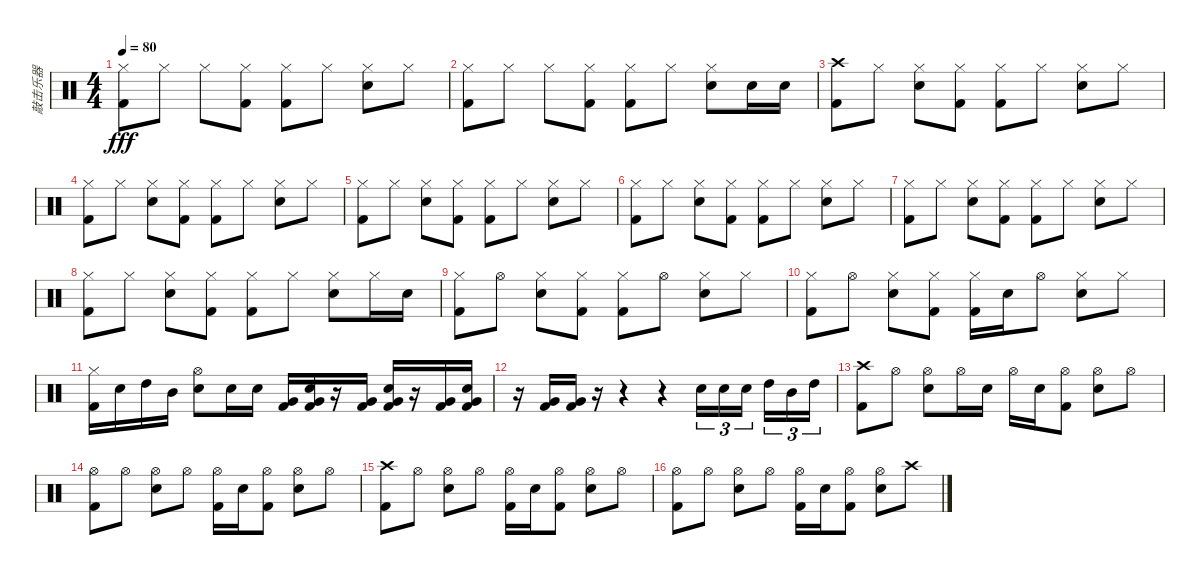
\track ("敲击乐器" "敲击乐器") {instrument percussion}
\staff {score}
\articulation defaults
\ts (4 4)
\tempo 80
\clef neutral
\ks c
("Hi-Hat (closed)" "Kick (hit) 2").8{dy fff} "Hi-Hat (closed)".8 "Hi-Hat (closed)".8 ("Hi-Hat (closed)" "Kick (hit) 2").8 ("Hi-Hat (closed)" "Kick (hit) 2").8 "Hi-Hat (closed)".8 ("Hi-Hat (closed)" "Electric Snare (hit)").8 "Hi-Hat (closed)".8 |
("Hi-Hat (closed)" "Kick (hit) 2").8 "Hi-Hat (closed)".8 "Hi-Hat (closed)".8 ("Hi-Hat (closed)" "Kick (hit) 2").8 ("Hi-Hat (closed)" "Kick (hit) 2").8 "Hi-Hat (closed)".8 ("Hi-Hat (closed)" "Electric Snare (hit)").8 "Electric Snare (hit)".16 "Electric Snare (hit)".16 |
("Crash high (hit)" "Kick (hit) 2").8 "Hi-Hat (closed)".8 ("Hi-Hat (closed)" "Electric Snare (hit)").8 ("Hi-Hat (closed)" "Kick (hit) 2").8 ("Hi-Hat (closed)" "Kick (hit) 2").8 "Hi-Hat (closed)".8 ("Hi-Hat (closed)" "Electric Snare (hit)").8 "Hi-Hat (closed)".8 |
("Hi-Hat (closed)" "Kick (hit) 2").8 "Hi-Hat (closed)".8 ("Hi-Hat (closed)" "Electric Snare (hit)").8 ("Hi-Hat (closed)" "Kick (hit) 2").8 ("Hi-Hat (closed)" "Kick (hit) 2").8 "Hi-Hat (closed)".8 ("Hi-Hat (closed)" "Electric Snare (hit)").8 "Hi-Hat (closed)".8 |
("Hi-Hat (closed)" "Kick (hit) 2").8 "Hi-Hat (closed)".8 ("Hi-Hat (closed)" "Electric Snare (hit)").8 ("Hi-Hat (closed)" "Kick (hit) 2").8 ("Hi-Hat (closed)" "Kick (hit) 2").8 "Hi-Hat (closed)".8 ("Hi-Hat (closed)" "Electric Snare (hit)").8 "Hi-Hat (closed)".8 |
("Hi-Hat (closed)" "Kick (hit) 2").8 "Hi-Hat (closed)".8 ("Hi-Hat (closed)" "Electric Snare (hit)").8 ("Hi-Hat (closed)" "Kick (hit) 2").8 ("Hi-Hat (closed)" "Kick (hit) 2").8 "Hi-Hat (closed)".8 ("Hi-Hat (closed)" "Electric Snare (hit)").8 "Hi-Hat (closed)".8 |
("Hi-Hat (closed)" "Kick (hit) 2").8 "Hi-Hat (closed)".8 ("Hi-Hat (closed)" "Electric Snare (hit)").8 ("Hi-Hat (closed)" "Kick (hit) 2").8 ("Hi-Hat (closed)" "Kick (hit) 2").8 "Hi-Hat (closed)".8 ("Hi-Hat (closed)" "Electric Snare (hit)").8 "Hi-Hat (closed)".8 |
("Hi-Hat (closed)" "Kick (hit) 2").8 "Hi-Hat (closed)".8 ("Hi-Hat (closed)" "Electric Snare (hit)").8 ("Hi-Hat (closed)" "Kick (hit) 2").8 ("Hi-Hat (closed)" "Kick (hit) 2").8 "Hi-Hat (closed)".8 ("Hi-Hat (closed)" "Electric Snare (hit)").8 "Hi-Hat (closed)".16 "Electric Snare (hit)".16 |
("Hi-Hat (closed)" "Kick (hit) 2").8 "Hi-Hat (open)".8 ("Hi-Hat (closed)" "Electric Snare (hit)").8 ("Hi-Hat (closed)" "Kick (hit) 2").8 ("Hi-Hat (closed)" "Kick (hit) 2").8 "Hi-Hat (open)".8 ("Hi-Hat (closed)" "Electric Snare (hit)").8 "Hi-Hat (closed)".8 |
("Hi-Hat (closed)" "Kick (hit) 2").8 "Hi-Hat (open)".8 ("Hi-Hat (closed)" "Electric Snare (hit)").8 ("Hi-Hat (closed)" "Kick (hit) 2").8 ("Hi-Hat (closed)" "Kick (hit) 2").16 "Electric Snare (hit)".16 "Hi-Hat (open)".8 ("Hi-Hat (closed)" "Electric Snare (hit)").8 "Hi-Hat (closed)".8 |
("Hi-Hat (closed)" "Kick (hit) 2").16 "Electric Snare (hit)".16 "High Tom (hit)".16 "Mid Tom (hit)".16 ("Hi-Hat (open)" "Electric Snare (hit)").8 "Electric Snare (hit)".16 "Electric Snare (hit)".16 ("Very Low Tom (hit)" "Kick (hit) 2").16 ("Electric Snare (hit)" "Very Low Tom (hit)" "Kick (hit) 2").16 r.16 ("Very Low Tom (hit)" "Kick (hit) 2").16 ("Electric Snare (hit)" "Very Low Tom (hit)" "Kick (hit) 2").16 r.16 ("Very Low Tom (hit)" "Kick (hit) 2").16 ("Electric Snare (hit)" "Very Low Tom (hit)" "Kick (hit) 2").16 |
r.16 ("Very Low Tom (hit)" "Kick (hit) 2").16 ("Very Low Tom (hit)" "Kick (hit) 2").16 r.16 r.4 r.4 "Electric Snare (hit)".16{tu (3 2)} "Electric Snare (hit)".16{tu (3 2)} "Electric Snare (hit)".16{tu (3 2) beam splitsecondary} "High Tom (hit)".16{tu (3 2)} "Mid Tom (hit)".16{tu (3 2)} "High Tom (hit)".16{tu (3 2)} |
("Crash high (hit)" "Kick (hit) 2").8 "Hi-Hat (open)".8 ("Hi-Hat (open)" "Electric Snare (hit)").8 "Hi-Hat (open)".16 "Electric Snare (hit)".16 "Hi-Hat (open)".16 "Electric Snare (hit)".16 ("Hi-Hat (open)" "Kick (hit) 2").8 ("Hi-Hat (open)" "Electric Snare (hit)").8 "Hi-Hat (open)".8 |
("Hi-Hat (open)" "Kick (hit) 2").8 "Hi-Hat (open)".8 ("Hi-Hat (open)" "Electric Snare (hit)").8 "Hi-Hat (open)".8 ("Hi-Hat (open)" "Kick (hit) 2").16 "Electric Snare (hit)".16 ("Hi-Hat (open)" "Kick (hit) 2").8 ("Hi-Hat (open)" "Electric Snare (hit)").8 "Hi-Hat (open)".8 |
("Crash high (hit)" "Kick (hit) 2").8 "Hi-Hat (open)".8 ("Hi-Hat (open)" "Electric Snare (hit)").8 "Hi-Hat (open)".8 ("Hi-Hat (open)" "Kick (hit) 2").16 "Electric Snare (hit)".16 ("Hi-Hat (open)" "Kick (hit) 2").8 ("Hi-Hat (open)" "Electric Snare (hit)").8 "Hi-Hat (open)".8 |
("Hi-Hat (open)" "Kick (hit) 2").8 "Hi-Hat (open)".8 ("Hi-Hat (open)" "Electric Snare (hit)").8 "Hi-Hat (open)".8 ("Hi-Hat (open)" "Kick (hit) 2").16 "Electric Snare (hit)".16 ("Hi-Hat (open)" "Kick (hit) 2").8 ("Hi-Hat (open)" "Electric Snare (hit)").8 "Crash high (hit)".8
